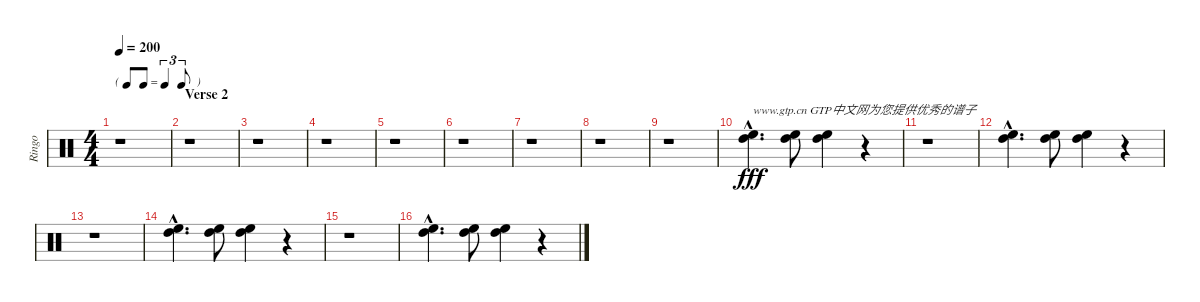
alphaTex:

\track ("Ringo" "Ringo") {instrument percussion}
\staff {score}
\articulation defaults
\ts (4 4)
\tf triplet8th
\tempo 200
\clef neutral
\ks c
r.1{dy fff} |
\section ("" "Verse 2")
r.1 |
r.1 |
r.1 |
r.1 |
r.1 |
r.1 |
r.1 |
r.1 |
("High Floor Tom (hit)"{hac} "High Tom (hit)"{hac}).4{d txt "www.gtp.cn GTP中文网为您提供优秀的谱子"} ("High Floor Tom (hit)" "High Tom (hit)").8 ("High Floor Tom (hit)" "High Tom (hit)").4 r.4 |
r.1 |
("High Floor Tom (hit)"{hac} "High Tom (hit)"{hac}).4{d} ("High Floor Tom (hit)" "High Tom (hit)").8 ("High Floor Tom (hit)" "High Tom (hit)").4 r.4 |
r.1 |
("High Floor Tom (hit)"{hac} "High Tom (hit)"{hac}).4{d} ("High Floor Tom (hit)" "High Tom (hit)").8 ("High Floor Tom (hit)" "High Tom (hit)").4 r.4 |
r.1 |
("High Floor Tom (hit)"{hac} "High Tom (hit)"{hac}).4{d} ("High Floor Tom (hit)" "High Tom (hit)").8 ("High Floor Tom (hit)" "High Tom (hit)").4 r.4
